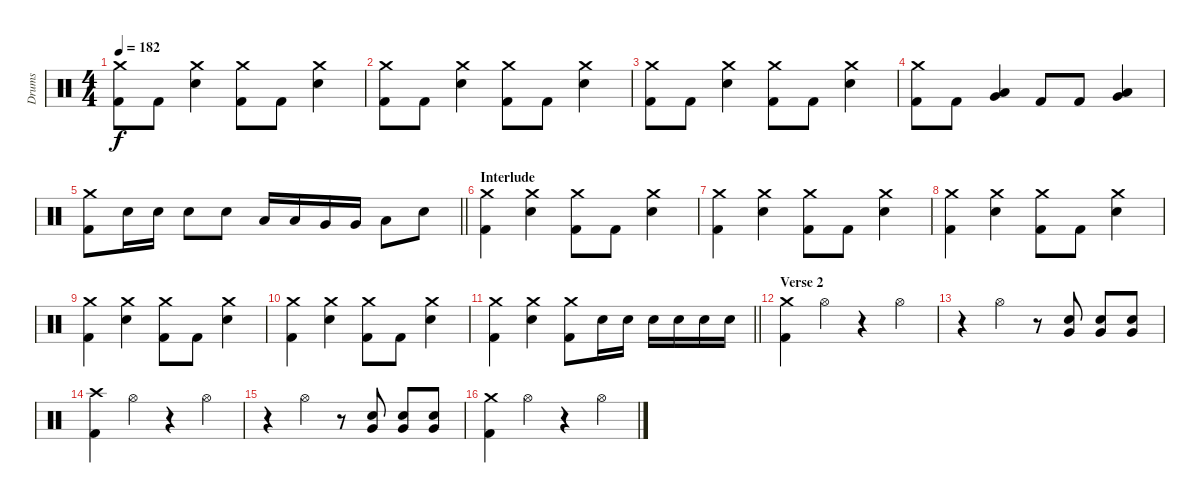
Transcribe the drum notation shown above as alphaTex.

\track ("Drums" "Drums") {instrument percussion}
\staff {score}
\articulation defaults
\ts (4 4)
\tempo 182
\clef neutral
\ks c
("Crash medium (hit)" "Kick (hit) 2").8{dy f} "Kick (hit) 2".8 ("Crash medium (hit)" "Electric Snare (hit)").4 ("Crash medium (hit)" "Kick (hit) 2").8 "Kick (hit) 2".8 ("Crash medium (hit)" "Electric Snare (hit)").4 |
("Crash medium (hit)" "Kick (hit) 2").8 "Kick (hit) 2".8 ("Crash medium (hit)" "Electric Snare (hit)").4 ("Crash medium (hit)" "Kick (hit) 2").8 "Kick (hit) 2".8 ("Crash medium (hit)" "Electric Snare (hit)").4 |
("Crash medium (hit)" "Kick (hit) 2").8 "Kick (hit) 2".8 ("Crash medium (hit)" "Electric Snare (hit)").4 ("Crash medium (hit)" "Kick (hit) 2").8 "Kick (hit) 2".8 ("Crash medium (hit)" "Electric Snare (hit)").4 |
("Crash medium (hit)" "Kick (hit) 2").8 "Kick (hit) 2".8 ("Very Low Tom (hit)" "Low Tom (hit)").4 "Kick (hit) 2".8 "Kick (hit) 2".8 ("Very Low Tom (hit)" "Low Tom (hit)").4 |
\barLineRight lightlight
("Crash medium (hit)" "Kick (hit) 2").8 "Electric Snare (hit)".16 "Electric Snare (hit)".16 "Electric Snare (hit)".8 "Electric Snare (hit)".8 "Low Tom (hit)".16 "Low Tom (hit)".16 "Very Low Tom (hit)".16 "Very Low Tom (hit)".16 "Low Floor Tom (hit)".8 "Electric Snare (hit)".8 |
\section ("" "Interlude")
("Crash medium (hit)" "Kick (hit) 2").4 ("Crash medium (hit)" "Electric Snare (hit)").4 ("Crash medium (hit)" "Kick (hit) 2").8 "Kick (hit) 2".8 ("Crash medium (hit)" "Electric Snare (hit)").4 |
("Crash medium (hit)" "Kick (hit) 2").4 ("Crash medium (hit)" "Electric Snare (hit)").4 ("Crash medium (hit)" "Kick (hit) 2").8 "Kick (hit) 2".8 ("Crash medium (hit)" "Electric Snare (hit)").4 |
("Crash medium (hit)" "Kick (hit) 2").4 ("Crash medium (hit)" "Electric Snare (hit)").4 ("Crash medium (hit)" "Kick (hit) 2").8 "Kick (hit) 2".8 ("Crash medium (hit)" "Electric Snare (hit)").4 |
("Crash medium (hit)" "Kick (hit) 2").4 ("Crash medium (hit)" "Electric Snare (hit)").4 ("Crash medium (hit)" "Kick (hit) 2").8 "Kick (hit) 2".8 ("Crash medium (hit)" "Electric Snare (hit)").4 |
("Crash medium (hit)" "Kick (hit) 2").4 ("Crash medium (hit)" "Electric Snare (hit)").4 ("Crash medium (hit)" "Kick (hit) 2").8 "Kick (hit) 2".8 ("Crash medium (hit)" "Electric Snare (hit)").4 |
\barLineRight lightlight
("Crash medium (hit)" "Kick (hit) 2").4 ("Crash medium (hit)" "Electric Snare (hit)").4 ("Crash medium (hit)" "Kick (hit) 2").8 "Electric Snare (hit)".16 "Electric Snare (hit)".16 "Electric Snare (hit)".16 "Electric Snare (hit)".16 "Electric Snare (hit)".16 "Electric Snare (hit)".16 |
\section ("" "Verse 2")
("Crash medium (hit)" "Kick (hit) 2").4 "Hi-Hat (open)".4 r.4 "Hi-Hat (open)".4 |
r.4 "Hi-Hat (open)".4 r.8 ("Very Low Tom (hit)" "Electric Snare (hit)").8 ("Very Low Tom (hit)" "Electric Snare (hit)").8 ("Very Low Tom (hit)" "Electric Snare (hit)").8 |
("Crash high (hit)" "Kick (hit) 2").4 "Hi-Hat (open)".4 r.4 "Hi-Hat (open)".4 |
r.4 "Hi-Hat (open)".4 r.8 ("Very Low Tom (hit)" "Electric Snare (hit)").8 ("Very Low Tom (hit)" "Electric Snare (hit)").8 ("Very Low Tom (hit)" "Electric Snare (hit)").8 |
("Crash medium (hit)" "Kick (hit) 2").4 "Hi-Hat (open)".4 r.4 "Hi-Hat (open)".4
